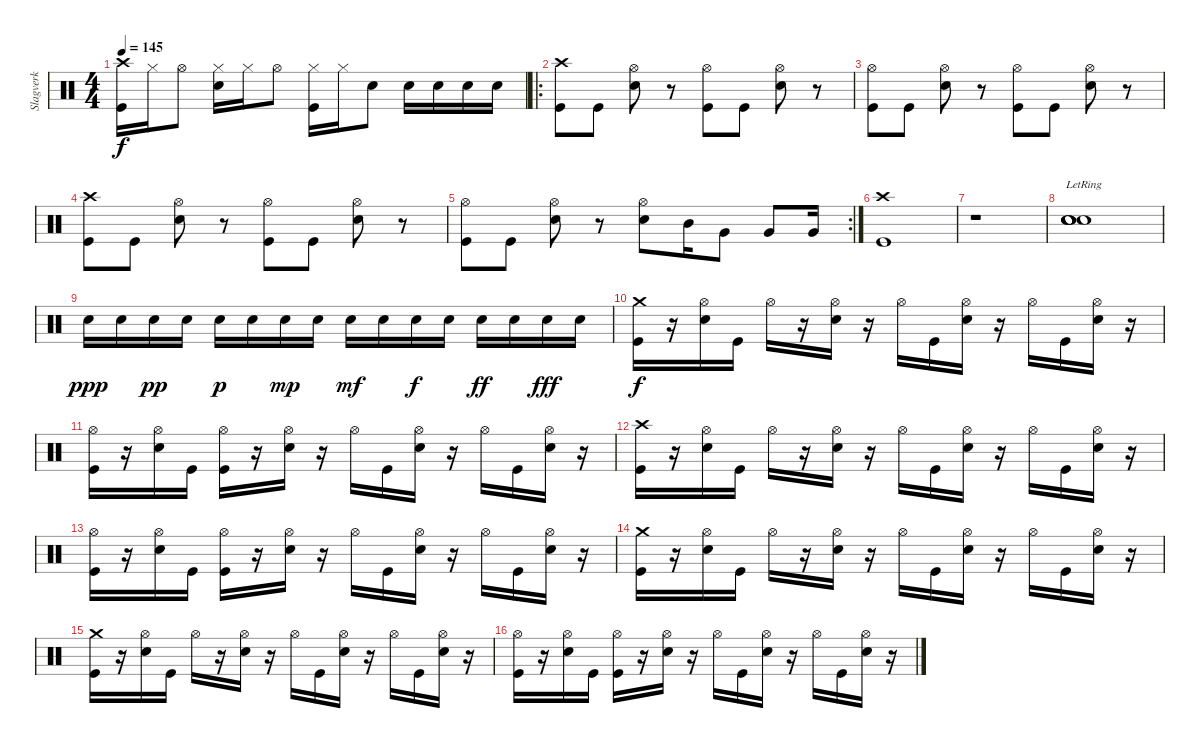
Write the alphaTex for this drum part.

\track ("Slagverk" "Slagverk") {instrument percussion}
\staff {score}
\articulation defaults
\ts (4 4)
\tempo 145
\clef neutral
\ks c
("Crash high (hit)" "Kick (hit)").16{dy f} "Hi-Hat (closed)".16 "Hi-Hat (open)".8 ("Hi-Hat (closed)" "Snare (hit) 2").16 "Hi-Hat (closed)".16 "Hi-Hat (open)".8 ("Hi-Hat (closed)" "Kick (hit)").16 "Hi-Hat (closed)".16 "Snare (hit) 2".8 "Snare (hit) 2".16 "Snare (hit) 2".16 "Snare (hit) 2".16 "Snare (hit) 2".16 |
\ro
("Crash high (hit)" "Kick (hit)").8 "Kick (hit)".8 ("Hi-Hat (open)" "Snare (hit) 2").8 r.8 ("Hi-Hat (open)" "Kick (hit)").8 "Kick (hit)".8 ("Hi-Hat (open)" "Snare (hit) 2").8 r.8 |
("Hi-Hat (open)" "Kick (hit)").8 "Kick (hit)".8 ("Hi-Hat (open)" "Snare (hit) 2").8 r.8 ("Hi-Hat (open)" "Kick (hit)").8 "Kick (hit)".8 ("Hi-Hat (open)" "Snare (hit) 2").8 r.8 |
("Crash high (hit)" "Kick (hit)").8 "Kick (hit)".8 ("Hi-Hat (open)" "Snare (hit) 2").8 r.8 ("Hi-Hat (open)" "Kick (hit)").8 "Kick (hit)".8 ("Hi-Hat (open)" "Snare (hit) 2").8 r.8 |
\rc 2
("Hi-Hat (open)" "Kick (hit)").8 "Kick (hit)".8 ("Hi-Hat (open)" "Snare (hit) 2").8 r.8 ("Hi-Hat (open)" "Snare (hit) 2").8 "Mid Tom (hit)".16 "Very Low Tom (hit)".8 "Very Low Tom (hit)".8 "Very Low Tom (hit)".16 |
("Crash high (hit)" "Kick (hit)").1 |
r.1 |
("Snare (hit) 2"{lr} "Snare (hit) 2"{lr} "Snare (hit) 2"{lr} "Snare (hit) 2"{lr}).1 |
"Snare (hit) 2".16{dy ppp} "Snare (hit) 2".16 "Snare (hit) 2".16{dy pp} "Snare (hit) 2".16 "Snare (hit) 2".16{dy p} "Snare (hit) 2".16 "Snare (hit) 2".16{dy mp} "Snare (hit) 2".16 "Snare (hit) 2".16{dy mf} "Snare (hit) 2".16 "Snare (hit) 2".16{dy f} "Snare (hit) 2".16 "Snare (hit) 2".16{dy ff} "Snare (hit) 2".16 "Snare (hit) 2".16{dy fff} "Snare (hit) 2".16 |
("Crash medium (hit)" "Kick (hit)").16{dy f} r.16 ("Hi-Hat (open)" "Snare (hit) 2").16 "Kick (hit)".16 "Hi-Hat (open)".16 r.16 ("Hi-Hat (open)" "Snare (hit) 2").16 r.16 "Hi-Hat (open)".16 "Kick (hit)".16 ("Hi-Hat (open)" "Snare (hit) 2").16 r.16 "Hi-Hat (open)".16 "Kick (hit)".16 ("Hi-Hat (open)" "Snare (hit) 2").16 r.16 |
("Hi-Hat (open)" "Kick (hit)").16 r.16 ("Hi-Hat (open)" "Snare (hit) 2").16 "Kick (hit)".16 ("Hi-Hat (open)" "Kick (hit)").16 r.16 ("Hi-Hat (open)" "Snare (hit) 2").16 r.16 "Hi-Hat (open)".16 "Kick (hit)".16 ("Hi-Hat (open)" "Snare (hit) 2").16 r.16 "Hi-Hat (open)".16 "Kick (hit)".16 ("Hi-Hat (open)" "Snare (hit) 2").16 r.16 |
("Crash high (hit)" "Kick (hit)").16 r.16 ("Hi-Hat (open)" "Snare (hit) 2").16 "Kick (hit)".16 "Hi-Hat (open)".16 r.16 ("Hi-Hat (open)" "Snare (hit) 2").16 r.16 "Hi-Hat (open)".16 "Kick (hit)".16 ("Hi-Hat (open)" "Snare (hit) 2").16 r.16 "Hi-Hat (open)".16 "Kick (hit)".16 ("Hi-Hat (open)" "Snare (hit) 2").16 r.16 |
("Hi-Hat (open)" "Kick (hit)").16 r.16 ("Hi-Hat (open)" "Snare (hit) 2").16 "Kick (hit)".16 ("Hi-Hat (open)" "Kick (hit)").16 r.16 ("Hi-Hat (open)" "Snare (hit) 2").16 r.16 "Hi-Hat (open)".16 "Kick (hit)".16 ("Hi-Hat (open)" "Snare (hit) 2").16 r.16 "Hi-Hat (open)".16 "Kick (hit)".16 ("Hi-Hat (open)" "Snare (hit) 2").16 r.16 |
("Crash medium (hit)" "Kick (hit)").16 r.16 ("Hi-Hat (open)" "Snare (hit) 2").16 "Kick (hit)".16 "Hi-Hat (open)".16 r.16 ("Hi-Hat (open)" "Snare (hit) 2").16 r.16 "Hi-Hat (open)".16 "Kick (hit)".16 ("Hi-Hat (open)" "Snare (hit) 2").16 r.16 "Hi-Hat (open)".16 "Kick (hit)".16 ("Hi-Hat (open)" "Snare (hit) 2").16 r.16 |
("Crash medium (hit)" "Kick (hit)").16 r.16 ("Hi-Hat (open)" "Snare (hit) 2").16 "Kick (hit)".16 "Hi-Hat (open)".16 r.16 ("Hi-Hat (open)" "Snare (hit) 2").16 r.16 "Hi-Hat (open)".16 "Kick (hit)".16 ("Hi-Hat (open)" "Snare (hit) 2").16 r.16 "Hi-Hat (open)".16 "Kick (hit)".16 ("Hi-Hat (open)" "Snare (hit) 2").16 r.16 |
("Hi-Hat (open)" "Kick (hit)").16 r.16 ("Hi-Hat (open)" "Snare (hit) 2").16 "Kick (hit)".16 ("Hi-Hat (open)" "Kick (hit)").16 r.16 ("Hi-Hat (open)" "Snare (hit) 2").16 r.16 "Hi-Hat (open)".16 "Kick (hit)".16 ("Hi-Hat (open)" "Snare (hit) 2").16 r.16 "Hi-Hat (open)".16 "Kick (hit)".16 ("Hi-Hat (open)" "Snare (hit) 2").16 r.16
